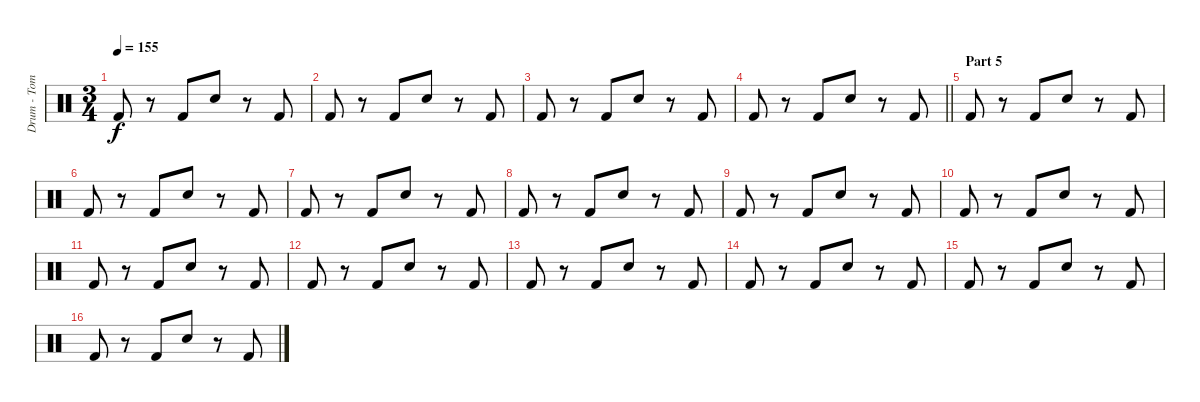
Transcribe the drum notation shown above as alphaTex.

\track ("Drum - Tom" "Drum - Tom") {instrument percussion}
\staff {score}
\articulation defaults
\ts (3 4)
\tempo 155
\clef neutral
\ks c "Kick (hit) 2".8{dy f}
r.8 "Kick (hit) 2".8 "Electric Snare (hit)".8 r.8 "Kick (hit) 2".8 |
"Kick (hit) 2".8 r.8 "Kick (hit) 2".8 "Electric Snare (hit)".8 r.8 "Kick (hit) 2".8 |
"Kick (hit) 2".8 r.8 "Kick (hit) 2".8 "Electric Snare (hit)".8 r.8 "Kick (hit) 2".8 |
\barLineRight lightlight "Kick (hit) 2".8
r.8 "Kick (hit) 2".8 "Electric Snare (hit)".8 r.8 "Kick (hit) 2".8 |
\section ("" "Part 5")
"Kick (hit) 2".8 r.8 "Kick (hit) 2".8 "Electric Snare (hit)".8 r.8 "Kick (hit) 2".8 |
"Kick (hit) 2".8 r.8 "Kick (hit) 2".8 "Electric Snare (hit)".8 r.8 "Kick (hit) 2".8 |
"Kick (hit) 2".8 r.8 "Kick (hit) 2".8 "Electric Snare (hit)".8 r.8 "Kick (hit) 2".8 |
"Kick (hit) 2".8 r.8 "Kick (hit) 2".8 "Electric Snare (hit)".8 r.8 "Kick (hit) 2".8 |
"Kick (hit) 2".8 r.8 "Kick (hit) 2".8 "Electric Snare (hit)".8 r.8 "Kick (hit) 2".8 |
"Kick (hit) 2".8 r.8 "Kick (hit) 2".8 "Electric Snare (hit)".8 r.8 "Kick (hit) 2".8 |
"Kick (hit) 2".8 r.8 "Kick (hit) 2".8 "Electric Snare (hit)".8 r.8 "Kick (hit) 2".8 |
"Kick (hit) 2".8 r.8 "Kick (hit) 2".8 "Electric Snare (hit)".8 r.8 "Kick (hit) 2".8 |
"Kick (hit) 2".8 r.8 "Kick (hit) 2".8 "Electric Snare (hit)".8 r.8 "Kick (hit) 2".8 |
"Kick (hit) 2".8 r.8 "Kick (hit) 2".8 "Electric Snare (hit)".8 r.8 "Kick (hit) 2".8 |
"Kick (hit) 2".8 r.8 "Kick (hit) 2".8 "Electric Snare (hit)".8 r.8 "Kick (hit) 2".8 |
"Kick (hit) 2".8 r.8 "Kick (hit) 2".8 "Electric Snare (hit)".8 r.8 "Kick (hit) 2".8
